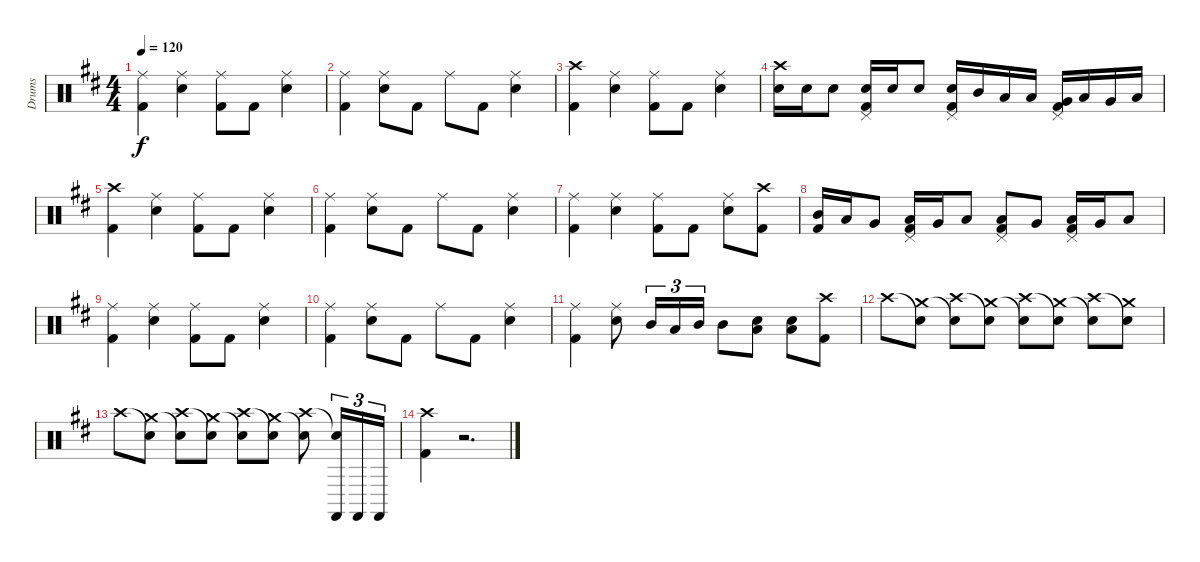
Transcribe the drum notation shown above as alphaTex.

\track ("Drums" "Drums") {instrument percussion}
\staff {score}
\articulation defaults
\ts (4 4)
\tempo 120
\clef neutral
\ks bminor
("Ride (middle)" "Kick (hit) 2").4{dy f} ("Ride (middle)" "Electric Snare (hit)").4 ("Ride (middle)" "Kick (hit) 2").8 "Kick (hit) 2".8 ("Ride (middle)" "Electric Snare (hit)").4 |
("Ride (middle)" "Kick (hit) 2").4 ("Ride (middle)" "Electric Snare (hit)").8 "Kick (hit) 2".8 "Ride (middle)".8 "Kick (hit) 2".8 ("Ride (middle)" "Electric Snare (hit)").4 |
("Crash high (hit)" "Kick (hit) 2").4 ("Ride (middle)" "Electric Snare (hit)").4 ("Ride (middle)" "Kick (hit) 2").8 "Kick (hit) 2".8 ("Ride (middle)" "Electric Snare (hit)").4 |
("Crash high (hit)" "Electric Snare (hit)").16 "Electric Snare (hit)".16 "Electric Snare (hit)".8 ("Pedal Hi-Hat (hit)" "Electric Snare (hit)" "Kick (hit) 2").16 "Electric Snare (hit)".16 "Electric Snare (hit)".8 ("Pedal Hi-Hat (hit)" "Electric Snare (hit)" "Kick (hit) 2").16 "Mid Tom (hit)".16 "Low Tom (hit)".16 "Low Tom (hit)".16 ("Pedal Hi-Hat (hit)" "Very Low Tom (hit)" "Kick (hit) 2").16 "Low Tom (hit)".16 "Very Low Tom (hit)".16 "Low Floor Tom (hit)".16 |
("Crash high (hit)" "Kick (hit) 2").4 ("Ride (middle)" "Electric Snare (hit)").4 ("Ride (middle)" "Kick (hit) 2").8 "Kick (hit) 2".8 ("Ride (middle)" "Electric Snare (hit)").4 |
("Ride (middle)" "Kick (hit) 2").4 ("Ride (middle)" "Electric Snare (hit)").8 "Kick (hit) 2".8 "Ride (middle)".8 "Kick (hit) 2".8 ("Ride (middle)" "Electric Snare (hit)").4 |
("Ride (middle)" "Kick (hit) 2").4 ("Ride (middle)" "Electric Snare (hit)").4 ("Ride (middle)" "Kick (hit) 2").8 "Kick (hit) 2".8 ("Ride (middle)" "Electric Snare (hit)").8 ("Crash high (hit)" "Kick (hit) 2").8 |
("Mid Tom (hit)" "Kick (hit) 2").16 "Low Tom (hit)".16 "Very Low Tom (hit)".8 ("Pedal Hi-Hat (hit)" "Low Tom (hit)" "Kick (hit) 2").16 "Very Low Tom (hit)".16 "Low Floor Tom (hit)".8 ("Pedal Hi-Hat (hit)" "Low Tom (hit)" "Kick (hit) 2").8 "Very Low Tom (hit)".8 ("Pedal Hi-Hat (hit)" "Low Tom (hit)" "Kick (hit) 2").16 "Very Low Tom (hit)".16 "Low Floor Tom (hit)".8 |
("Ride (middle)" "Kick (hit) 2").4 ("Ride (middle)" "Electric Snare (hit)").4 ("Ride (middle)" "Kick (hit) 2").8 "Kick (hit) 2".8 ("Ride (middle)" "Electric Snare (hit)").4 |
("Ride (middle)" "Kick (hit) 2").4 ("Ride (middle)" "Electric Snare (hit)").8 "Kick (hit) 2".8 "Ride (middle)".8 "Kick (hit) 2".8 ("Ride (middle)" "Electric Snare (hit)").4 |
("Ride (middle)" "Kick (hit) 2").4 ("Ride (middle)" "Electric Snare (hit)").8 "Mid Tom (hit)".16{tu (3 2)} "Low Tom (hit)".16{tu (3 2)} "Mid Tom (hit)".16{tu (3 2)} "Mid Tom (hit)".8 ("Low Floor Tom (hit)" "Electric Snare (hit)").8 ("Low Floor Tom (hit)" "Electric Snare (hit)").8 ("Crash high (hit)" "Kick (hit) 2").8 |
"Crash high (hit)".8 ("Snare (hit)"{t} "Crash medium (hit)").8 ("Crash high (hit)" "Snare (hit)"{t}).8 ("Snare (hit)"{t} "Crash medium (hit)").8 ("Crash high (hit)" "Snare (hit)"{t}).8 ("Snare (hit)"{t} "Crash medium (hit)").8 ("Crash high (hit)" "Snare (hit)"{t}).8 ("Snare (hit)"{t} "Crash medium (hit)").8 |
"Crash high (hit)".8 ("Snare (hit)"{t} "Crash medium (hit)").8 ("Crash high (hit)" "Snare (hit)"{t}).8 ("Snare (hit)"{t} "Crash medium (hit)").8 ("Crash high (hit)" "Snare (hit)"{t}).8 ("Snare (hit)"{t} "Crash medium (hit)").8 ("Crash high (hit)" "Snare (hit)"{t}).8 ("Snare (hit)"{t} "Castanets (hit)").16{tu (3 2)} "Castanets (hit)".16{tu (3 2)} "Castanets (hit)".16{tu (3 2)} |
("Crash high (hit)" "Kick (hit) 2").4 r.2{d}
